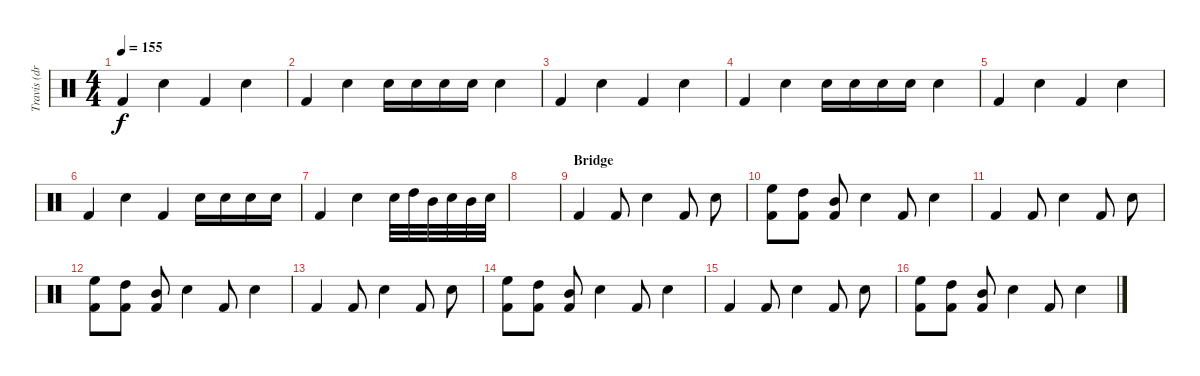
\track ("Travis (drums)" "Travis (dr") {instrument percussion}
\staff {score}
\articulation defaults
\ts (4 4)
\tempo 155
\clef neutral
\ks c "Kick (hit) 2".4{dy f} "Snare (hit) 2".4 "Kick (hit) 2".4 "Snare (hit) 2".4
|
"Kick (hit) 2".4 "Snare (hit) 2".4 "Snare (hit) 2".16 "Snare (hit) 2".16 "Snare (hit) 2".16 "Snare (hit) 2".16 "Snare (hit) 2".4 |
"Kick (hit) 2".4 "Snare (hit) 2".4 "Kick (hit) 2".4 "Snare (hit) 2".4 |
"Kick (hit) 2".4 "Snare (hit) 2".4 "Snare (hit) 2".16 "Snare (hit) 2".16 "Snare (hit) 2".16 "Snare (hit) 2".16 "Snare (hit) 2".4 |
"Kick (hit) 2".4 "Snare (hit) 2".4 "Kick (hit) 2".4 "Snare (hit) 2".4 |
"Kick (hit) 2".4 "Snare (hit) 2".4 "Kick (hit) 2".4 "Snare (hit) 2".16 "Snare (hit) 2".16 "Snare (hit) 2".16 "Snare (hit) 2".16 |
"Kick (hit) 2".4 "Snare (hit) 2".4 "Snare (hit) 2".32 "High Tom (hit)".32 "Mid Tom (hit)".32 "Snare (hit) 2".32 "Mid Tom (hit)".32 "Snare (hit) 2".32 |
|
\section ("" "Bridge")
"Kick (hit) 2".4 "Kick (hit) 2".8 "Snare (hit) 2".4 "Kick (hit) 2".8 "Snare (hit) 2".8 |
("High Floor Tom (hit)" "Kick (hit) 2").8 ("High Tom (hit)" "Kick (hit) 2").8 ("Mid Tom (hit)" "Kick (hit) 2").8 "Snare (hit) 2".4 "Kick (hit) 2".8 "Snare (hit) 2".4 |
"Kick (hit) 2".4 "Kick (hit) 2".8 "Snare (hit) 2".4 "Kick (hit) 2".8 "Snare (hit) 2".8 |
("High Floor Tom (hit)" "Kick (hit) 2").8 ("High Tom (hit)" "Kick (hit) 2").8 ("Mid Tom (hit)" "Kick (hit) 2").8 "Snare (hit) 2".4 "Kick (hit) 2".8 "Snare (hit) 2".4 |
"Kick (hit) 2".4 "Kick (hit) 2".8 "Snare (hit) 2".4 "Kick (hit) 2".8 "Snare (hit) 2".8 |
("High Floor Tom (hit)" "Kick (hit) 2").8 ("High Tom (hit)" "Kick (hit) 2").8 ("Mid Tom (hit)" "Kick (hit) 2").8 "Snare (hit) 2".4 "Kick (hit) 2".8 "Snare (hit) 2".4 |
"Kick (hit) 2".4 "Kick (hit) 2".8 "Snare (hit) 2".4 "Kick (hit) 2".8 "Snare (hit) 2".8 |
("High Floor Tom (hit)" "Kick (hit) 2").8 ("High Tom (hit)" "Kick (hit) 2").8 ("Mid Tom (hit)" "Kick (hit) 2").8 "Snare (hit) 2".4 "Kick (hit) 2".8 "Snare (hit) 2".4
